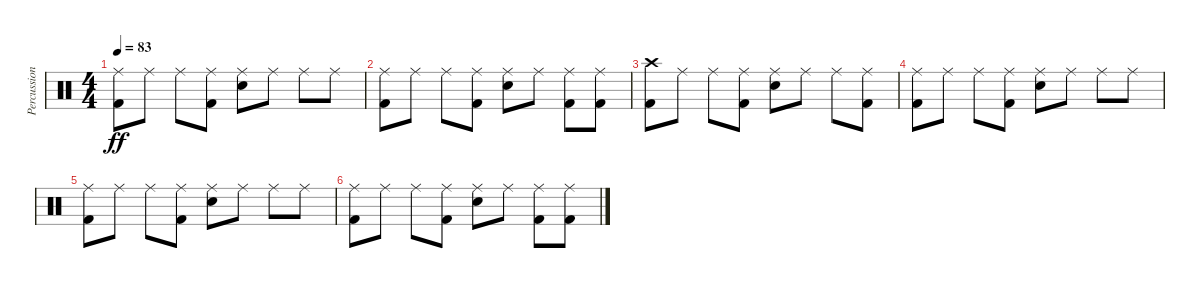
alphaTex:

\track ("Percussions" "Percussion") {instrument percussion}
\staff {score}
\articulation defaults
\ts (4 4)
\tempo 83
\clef neutral
\ks c
("Ride (middle)" "Kick (hit) 2").8{dy ff} "Ride (middle)".8 "Ride (middle)".8 ("Ride (middle)" "Kick (hit) 2").8 ("Ride (middle)" "Electric Snare (hit)").8 "Ride (middle)".8 "Ride (middle)".8 "Ride (middle)".8 |
("Ride (middle)" "Kick (hit) 2").8 "Ride (middle)".8 "Ride (middle)".8 ("Ride (middle)" "Kick (hit) 2").8 ("Ride (middle)" "Electric Snare (hit)").8 "Ride (middle)".8 ("Ride (middle)" "Kick (hit) 2").8 ("Ride (middle)" "Kick (hit) 2").8 |
("Crash high (hit)" "Kick (hit) 2").8 "Ride (middle)".8 "Ride (middle)".8 ("Ride (middle)" "Kick (hit) 2").8 ("Ride (middle)" "Electric Snare (hit)").8 "Ride (middle)".8 "Ride (middle)".8 ("Ride (middle)" "Kick (hit) 2").8 |
("Ride (middle)" "Kick (hit) 2").8 "Ride (middle)".8 "Ride (middle)".8 ("Ride (middle)" "Kick (hit) 2").8 ("Ride (middle)" "Electric Snare (hit)").8 "Ride (middle)".8 "Ride (middle)".8 "Ride (middle)".8 |
("Ride (middle)" "Kick (hit) 2").8 "Ride (middle)".8 "Ride (middle)".8 ("Ride (middle)" "Kick (hit) 2").8 ("Ride (middle)" "Electric Snare (hit)").8 "Ride (middle)".8 "Ride (middle)".8 "Ride (middle)".8 |
("Ride (middle)" "Kick (hit) 2").8 "Ride (middle)".8 "Ride (middle)".8 ("Ride (middle)" "Kick (hit) 2").8 ("Ride (middle)" "Electric Snare (hit)").8 "Ride (middle)".8 ("Ride (middle)" "Kick (hit) 2").8 ("Ride (middle)" "Kick (hit) 2").8
